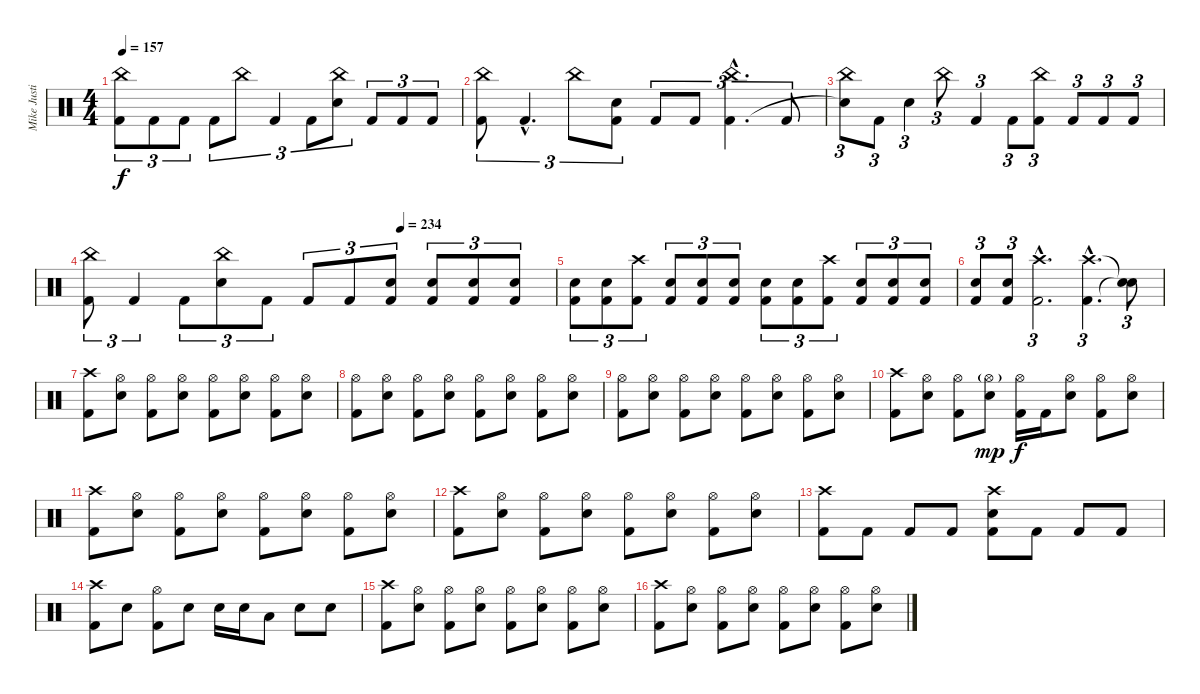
\track ("Mike Justian (Drums)" "Mike Justi") {instrument percussion}
\staff {score}
\articulation defaults
\ts (4 4)
\tempo 157
\clef neutral
\ks c
("China (hit)" "Kick (hit) 2").8{tu (3 2) dy f} "Kick (hit) 2".8{tu (3 2)} "Kick (hit) 2".8{tu (3 2)} "Kick (hit) 2".8{tu (3 2)} "China (hit)".8{tu (3 2)} "Kick (hit) 2".4{tu (3 2)} "Kick (hit) 2".8{tu (3 2)} ("China (hit)" "Snare (hit) 2").8{tu (3 2)} "Kick (hit) 2".8{tu (3 2)} "Kick (hit) 2".8{tu (3 2)} "Kick (hit) 2".8{tu (3 2)} |
("China (hit)" "Kick (hit) 2").8{tu (3 2)} "Kick (hit) 2"{hac}.4{d tu (3 2)} "China (hit)".8{tu (3 2)} ("Kick (hit) 2" "Snare (hit) 2").8{tu (3 2)} "Kick (hit) 2".8{tu (3 2)} "Kick (hit) 2".8{tu (3 2)} ("China (hit)"{hac} "Kick (hit) 2"{hac}).4{d tu (3 2)} "Kick (hit) 2".8{tu (3 2)} |
("China (hit)" "Snare (hit)"{t}).8{tu (3 2)} "Kick (hit) 2".8{tu (3 2)} "Snare (hit) 2".4{tu (3 2)} "China (hit)".8{tu (3 2)} "Kick (hit) 2".4{tu (3 2)} "Kick (hit) 2".8{tu (3 2)} ("China (hit)" "Kick (hit) 2").8{tu (3 2)} "Kick (hit) 2".8{tu (3 2)} "Kick (hit) 2".8{tu (3 2)} "Kick (hit) 2".8{tu (3 2)} |
\tempo (234 0.6666666666666666)
("China (hit)" "Kick (hit) 2").8{tu (3 2)} "Kick (hit) 2".4{tu (3 2)} "Kick (hit) 2".8{tu (3 2)} ("China (hit)" "Snare (hit) 2").8{tu (3 2)} "Kick (hit) 2".8{tu (3 2)} "Kick (hit) 2".8{tu (3 2)} "Kick (hit) 2".8{tu (3 2)} ("Snare (hit) 2" "Kick (hit) 2").8{tu (3 2)} ("Snare (hit) 2" "Kick (hit) 2").8{tu (3 2)} ("Snare (hit) 2" "Kick (hit) 2").8{tu (3 2)} ("Snare (hit) 2" "Kick (hit) 2").8{tu (3 2)} |
("Snare (hit) 2" "Kick (hit) 2").8{tu (3 2)} ("Snare (hit) 2" "Kick (hit) 2").8{tu (3 2)} ("Crash high (hit)" "Kick (hit) 2").8{tu (3 2)} ("Snare (hit) 2" "Kick (hit) 2").8{tu (3 2)} ("Snare (hit) 2" "Kick (hit) 2").8{tu (3 2)} ("Snare (hit) 2" "Kick (hit) 2").8{tu (3 2)} ("Snare (hit) 2" "Kick (hit) 2").8{tu (3 2)} ("Snare (hit) 2" "Kick (hit) 2").8{tu (3 2)} ("Crash high (hit)" "Kick (hit) 2").8{tu (3 2)} ("Snare (hit) 2" "Kick (hit) 2").8{tu (3 2)} ("Snare (hit) 2" "Kick (hit) 2").8{tu (3 2)} ("Snare (hit) 2" "Kick (hit) 2").8{tu (3 2)} |
("Snare (hit) 2" "Kick (hit) 2").8{tu (3 2)} ("Snare (hit) 2" "Kick (hit) 2").8{tu (3 2)} ("Crash high (hit)"{hac} "Kick (hit) 2"{hac}).2{d tu (3 2)} ("Kick (hit) 2"{hac} "Crash high (hit)"{hac}).4{d tu (3 2)} ("Snare (hit)"{t} "Snare (hit)"{t}).8{tu (3 2)} |
("Crash high (hit)" "Kick (hit) 2").8 ("Hi-Hat (open)" "Snare (hit) 2").8 ("Hi-Hat (open)" "Kick (hit) 2").8 ("Hi-Hat (open)" "Snare (hit) 2").8 ("Hi-Hat (open)" "Kick (hit) 2").8 ("Hi-Hat (open)" "Snare (hit) 2").8 ("Hi-Hat (open)" "Kick (hit) 2").8 ("Hi-Hat (open)" "Snare (hit) 2").8 |
("Hi-Hat (open)" "Kick (hit) 2").8 ("Hi-Hat (open)" "Snare (hit) 2").8 ("Hi-Hat (open)" "Kick (hit) 2").8 ("Hi-Hat (open)" "Snare (hit) 2").8 ("Hi-Hat (open)" "Kick (hit) 2").8 ("Hi-Hat (open)" "Snare (hit) 2").8 ("Hi-Hat (open)" "Kick (hit) 2").8 ("Hi-Hat (open)" "Snare (hit) 2").8 |
("Hi-Hat (open)" "Kick (hit) 2").8 ("Hi-Hat (open)" "Snare (hit) 2").8 ("Hi-Hat (open)" "Kick (hit) 2").8 ("Hi-Hat (open)" "Snare (hit) 2").8 ("Hi-Hat (open)" "Kick (hit) 2").8 ("Hi-Hat (open)" "Snare (hit) 2").8 ("Hi-Hat (open)" "Kick (hit) 2").8 ("Hi-Hat (open)" "Snare (hit) 2").8 |
("Crash high (hit)" "Kick (hit) 2").8 ("Hi-Hat (open)" "Snare (hit) 2").8 ("Hi-Hat (open)" "Kick (hit) 2").8 ("Hi-Hat (open)"{g} "Snare (hit) 2").8{dy mp} ("Hi-Hat (open)" "Kick (hit) 2").16{dy f} "Kick (hit) 2".16 ("Hi-Hat (open)" "Snare (hit) 2").8 ("Hi-Hat (open)" "Kick (hit) 2").8 ("Hi-Hat (open)" "Snare (hit) 2").8 |
("Crash high (hit)" "Kick (hit) 2").8 ("Hi-Hat (open)" "Snare (hit) 2").8 ("Hi-Hat (open)" "Kick (hit) 2").8 ("Hi-Hat (open)" "Snare (hit) 2").8 ("Hi-Hat (open)" "Kick (hit) 2").8 ("Hi-Hat (open)" "Snare (hit) 2").8 ("Hi-Hat (open)" "Kick (hit) 2").8 ("Hi-Hat (open)" "Snare (hit) 2").8 |
("Crash high (hit)" "Kick (hit) 2").8 ("Hi-Hat (open)" "Snare (hit) 2").8 ("Hi-Hat (open)" "Kick (hit) 2").8 ("Hi-Hat (open)" "Snare (hit) 2").8 ("Hi-Hat (open)" "Kick (hit) 2").8 ("Hi-Hat (open)" "Snare (hit) 2").8 ("Hi-Hat (open)" "Kick (hit) 2").8 ("Hi-Hat (open)" "Snare (hit) 2").8 |
("Crash high (hit)" "Kick (hit) 2").8 "Kick (hit) 2".8 "Kick (hit) 2".8 "Kick (hit) 2".8 ("Kick (hit) 2" "Crash high (hit)" "Snare (hit) 2").8 "Kick (hit) 2".8 "Kick (hit) 2".8 "Kick (hit) 2".8 |
("Crash high (hit)" "Kick (hit) 2").8 "Snare (hit) 2".8 ("Kick (hit) 2" "Hi-Hat (open)").8 "Snare (hit) 2".8 "Snare (hit) 2".16 "Snare (hit) 2".16 "Low Tom (hit)".8 "Snare (hit) 2".8 "Snare (hit) 2".8 |
("Crash high (hit)" "Kick (hit) 2").8 ("Hi-Hat (open)" "Snare (hit) 2").8 ("Hi-Hat (open)" "Kick (hit) 2").8 ("Hi-Hat (open)" "Snare (hit) 2").8 ("Hi-Hat (open)" "Kick (hit) 2").8 ("Hi-Hat (open)" "Snare (hit) 2").8 ("Hi-Hat (open)" "Kick (hit) 2").8 ("Hi-Hat (open)" "Snare (hit) 2").8 |
("Crash high (hit)" "Kick (hit) 2").8 ("Hi-Hat (open)" "Snare (hit) 2").8 ("Hi-Hat (open)" "Kick (hit) 2").8 ("Hi-Hat (open)" "Snare (hit) 2").8 ("Hi-Hat (open)" "Kick (hit) 2").8 ("Hi-Hat (open)" "Snare (hit) 2").8 ("Hi-Hat (open)" "Kick (hit) 2").8 ("Hi-Hat (open)" "Snare (hit) 2").8
